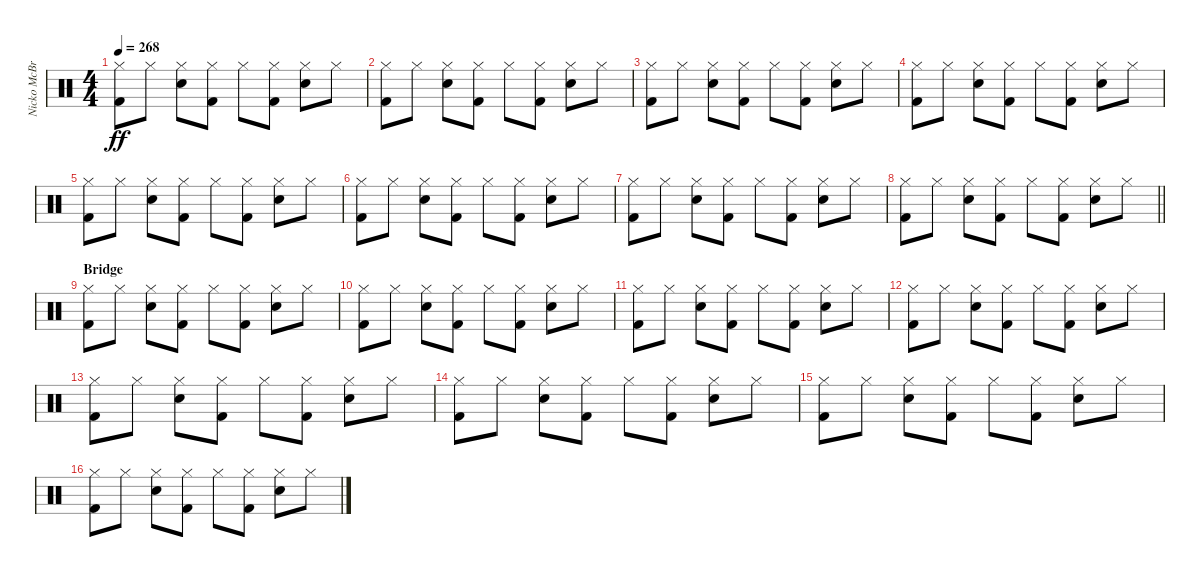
\track ("Nicko McBrain" "Nicko McBr") {instrument percussion}
\staff {score}
\articulation defaults
\ts (4 4)
\tempo 268
\clef neutral
\ks c
("Kick (hit) 2" "Hi-Hat (closed)").8{dy ff} "Hi-Hat (closed)".8 ("Snare (hit) 2" "Hi-Hat (closed)").8 ("Kick (hit) 2" "Hi-Hat (closed)").8 "Hi-Hat (closed)".8 ("Kick (hit) 2" "Hi-Hat (closed)").8 ("Snare (hit) 2" "Hi-Hat (closed)").8 "Hi-Hat (closed)".8 |
("Kick (hit) 2" "Hi-Hat (closed)").8 "Hi-Hat (closed)".8 ("Snare (hit) 2" "Hi-Hat (closed)").8 ("Kick (hit) 2" "Hi-Hat (closed)").8 "Hi-Hat (closed)".8 ("Kick (hit) 2" "Hi-Hat (closed)").8 ("Snare (hit) 2" "Hi-Hat (closed)").8 "Hi-Hat (closed)".8 |
("Kick (hit) 2" "Hi-Hat (closed)").8 "Hi-Hat (closed)".8 ("Snare (hit) 2" "Hi-Hat (closed)").8 ("Kick (hit) 2" "Hi-Hat (closed)").8 "Hi-Hat (closed)".8 ("Kick (hit) 2" "Hi-Hat (closed)").8 ("Snare (hit) 2" "Hi-Hat (closed)").8 "Hi-Hat (closed)".8 |
("Kick (hit) 2" "Hi-Hat (closed)").8 "Hi-Hat (closed)".8 ("Snare (hit) 2" "Hi-Hat (closed)").8 ("Kick (hit) 2" "Hi-Hat (closed)").8 "Hi-Hat (closed)".8 ("Kick (hit) 2" "Hi-Hat (closed)").8 ("Snare (hit) 2" "Hi-Hat (closed)").8 "Hi-Hat (closed)".8 |
("Kick (hit) 2" "Hi-Hat (closed)").8 "Hi-Hat (closed)".8 ("Snare (hit) 2" "Hi-Hat (closed)").8 ("Kick (hit) 2" "Hi-Hat (closed)").8 "Hi-Hat (closed)".8 ("Kick (hit) 2" "Hi-Hat (closed)").8 ("Snare (hit) 2" "Hi-Hat (closed)").8 "Hi-Hat (closed)".8 |
("Kick (hit) 2" "Hi-Hat (closed)").8 "Hi-Hat (closed)".8 ("Snare (hit) 2" "Hi-Hat (closed)").8 ("Kick (hit) 2" "Hi-Hat (closed)").8 "Hi-Hat (closed)".8 ("Kick (hit) 2" "Hi-Hat (closed)").8 ("Snare (hit) 2" "Hi-Hat (closed)").8 "Hi-Hat (closed)".8 |
("Kick (hit) 2" "Hi-Hat (closed)").8 "Hi-Hat (closed)".8 ("Snare (hit) 2" "Hi-Hat (closed)").8 ("Kick (hit) 2" "Hi-Hat (closed)").8 "Hi-Hat (closed)".8 ("Kick (hit) 2" "Hi-Hat (closed)").8 ("Snare (hit) 2" "Hi-Hat (closed)").8 "Hi-Hat (closed)".8 |
\barLineRight lightlight
("Kick (hit) 2" "Hi-Hat (closed)").8 "Hi-Hat (closed)".8 ("Snare (hit) 2" "Hi-Hat (closed)").8 ("Kick (hit) 2" "Hi-Hat (closed)").8 "Hi-Hat (closed)".8 ("Kick (hit) 2" "Hi-Hat (closed)").8 ("Snare (hit) 2" "Hi-Hat (closed)").8 "Hi-Hat (closed)".8 |
\section ("" "Bridge")
("Kick (hit) 2" "Hi-Hat (closed)").8 "Hi-Hat (closed)".8 ("Snare (hit) 2" "Hi-Hat (closed)").8 ("Kick (hit) 2" "Hi-Hat (closed)").8 "Hi-Hat (closed)".8 ("Kick (hit) 2" "Hi-Hat (closed)").8 ("Snare (hit) 2" "Hi-Hat (closed)").8 "Hi-Hat (closed)".8 |
("Kick (hit) 2" "Hi-Hat (closed)").8 "Hi-Hat (closed)".8 ("Snare (hit) 2" "Hi-Hat (closed)").8 ("Kick (hit) 2" "Hi-Hat (closed)").8 "Hi-Hat (closed)".8 ("Kick (hit) 2" "Hi-Hat (closed)").8 ("Snare (hit) 2" "Hi-Hat (closed)").8 "Hi-Hat (closed)".8 |
("Kick (hit) 2" "Hi-Hat (closed)").8 "Hi-Hat (closed)".8 ("Snare (hit) 2" "Hi-Hat (closed)").8 ("Kick (hit) 2" "Hi-Hat (closed)").8 "Hi-Hat (closed)".8 ("Kick (hit) 2" "Hi-Hat (closed)").8 ("Snare (hit) 2" "Hi-Hat (closed)").8 "Hi-Hat (closed)".8 |
("Kick (hit) 2" "Hi-Hat (closed)").8 "Hi-Hat (closed)".8 ("Snare (hit) 2" "Hi-Hat (closed)").8 ("Kick (hit) 2" "Hi-Hat (closed)").8 "Hi-Hat (closed)".8 ("Kick (hit) 2" "Hi-Hat (closed)").8 ("Snare (hit) 2" "Hi-Hat (closed)").8 "Hi-Hat (closed)".8 |
("Kick (hit) 2" "Hi-Hat (closed)").8 "Hi-Hat (closed)".8 ("Snare (hit) 2" "Hi-Hat (closed)").8 ("Kick (hit) 2" "Hi-Hat (closed)").8 "Hi-Hat (closed)".8 ("Kick (hit) 2" "Hi-Hat (closed)").8 ("Snare (hit) 2" "Hi-Hat (closed)").8 "Hi-Hat (closed)".8 |
("Kick (hit) 2" "Hi-Hat (closed)").8 "Hi-Hat (closed)".8 ("Snare (hit) 2" "Hi-Hat (closed)").8 ("Kick (hit) 2" "Hi-Hat (closed)").8 "Hi-Hat (closed)".8 ("Kick (hit) 2" "Hi-Hat (closed)").8 ("Snare (hit) 2" "Hi-Hat (closed)").8 "Hi-Hat (closed)".8 |
("Kick (hit) 2" "Hi-Hat (closed)").8 "Hi-Hat (closed)".8 ("Snare (hit) 2" "Hi-Hat (closed)").8 ("Kick (hit) 2" "Hi-Hat (closed)").8 "Hi-Hat (closed)".8 ("Kick (hit) 2" "Hi-Hat (closed)").8 ("Snare (hit) 2" "Hi-Hat (closed)").8 "Hi-Hat (closed)".8 |
("Kick (hit) 2" "Hi-Hat (closed)").8 "Hi-Hat (closed)".8 ("Snare (hit) 2" "Hi-Hat (closed)").8 ("Kick (hit) 2" "Hi-Hat (closed)").8 "Hi-Hat (closed)".8 ("Kick (hit) 2" "Hi-Hat (closed)").8 ("Snare (hit) 2" "Hi-Hat (closed)").8 "Hi-Hat (closed)".8
